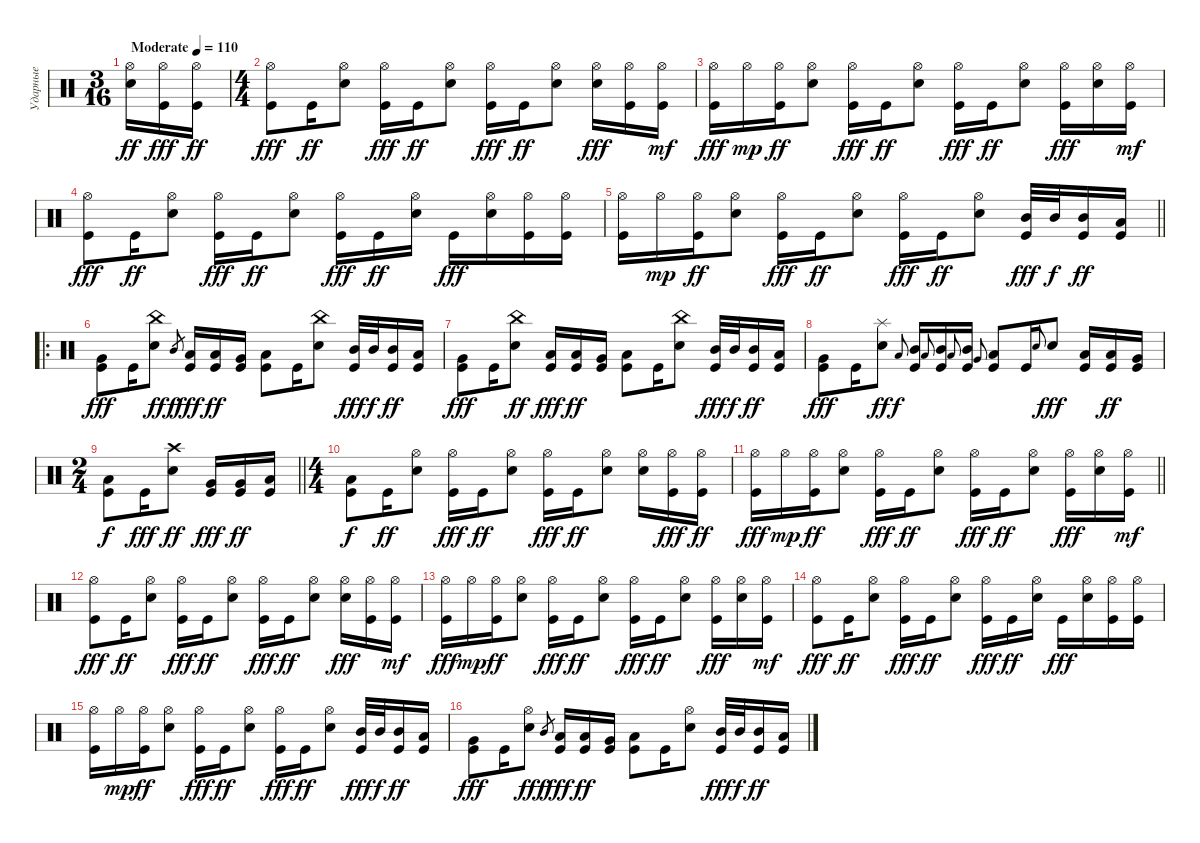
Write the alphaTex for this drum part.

\track ("Ударные" "Ударные") {instrument percussion}
\staff {score}
\articulation defaults
\ts (3 16)
\tempo (110 "Moderate")
\clef neutral
\ks c
("Hi-Hat (open)" "Electric Snare (hit)").16{dy ff} ("Hi-Hat (open)" "Kick (hit)").16{dy fff} ("Hi-Hat (open)" "Kick (hit)").16{dy ff} |
\ts (4 4)
("Hi-Hat (open)" "Kick (hit)").8{dy fff} "Kick (hit)".16{dy ff} ("Hi-Hat (open)" "Electric Snare (hit)").8 ("Hi-Hat (open)" "Kick (hit)").16{dy fff} "Kick (hit)".16{dy ff} ("Hi-Hat (open)" "Electric Snare (hit)").8 ("Hi-Hat (open)" "Kick (hit)").16{dy fff} "Kick (hit)".16{dy ff} ("Hi-Hat (open)" "Electric Snare (hit)").8 ("Hi-Hat (open)" "Electric Snare (hit)").16{dy fff} ("Hi-Hat (open)" "Kick (hit)").16 ("Hi-Hat (open)" "Kick (hit)").16{dy mf} |
("Hi-Hat (open)" "Kick (hit)").16{dy fff} "Hi-Hat (open)".16{dy mp} ("Hi-Hat (open)" "Kick (hit)").16{dy ff} ("Hi-Hat (open)" "Electric Snare (hit)").8 ("Hi-Hat (open)" "Kick (hit)").16{dy fff} "Kick (hit)".16{dy ff} ("Hi-Hat (open)" "Electric Snare (hit)").8 ("Hi-Hat (open)" "Kick (hit)").16{dy fff} "Kick (hit)".16{dy ff} ("Hi-Hat (open)" "Electric Snare (hit)").8 ("Hi-Hat (open)" "Kick (hit)").16{dy fff} ("Hi-Hat (open)" "Electric Snare (hit)").16 ("Hi-Hat (open)" "Kick (hit)").16{dy mf} |
("Hi-Hat (open)" "Kick (hit)").8{dy fff} "Kick (hit)".16{dy ff} ("Hi-Hat (open)" "Electric Snare (hit)").8 ("Hi-Hat (open)" "Kick (hit)").16{dy fff} "Kick (hit)".16{dy ff} ("Hi-Hat (open)" "Electric Snare (hit)").8 ("Hi-Hat (open)" "Kick (hit)").16{dy fff} "Kick (hit)".16{dy ff} ("Hi-Hat (open)" "Electric Snare (hit)").16 "Kick (hit)".16{dy fff} ("Hi-Hat (open)" "Electric Snare (hit)").16 ("Hi-Hat (open)" "Kick (hit)").16 ("Hi-Hat (open)" "Kick (hit)").16 |
\barLineRight lightlight
("Hi-Hat (open)" "Kick (hit)").16 "Hi-Hat (open)".16{dy mp} ("Hi-Hat (open)" "Kick (hit)").16{dy ff} ("Hi-Hat (open)" "Electric Snare (hit)").8 ("Hi-Hat (open)" "Kick (hit)").16{dy fff} "Kick (hit)".16{dy ff} ("Hi-Hat (open)" "Electric Snare (hit)").8 ("Hi-Hat (open)" "Kick (hit)").16{dy fff} "Kick (hit)".16{dy ff} ("Hi-Hat (open)" "Electric Snare (hit)").8 ("Mid Tom (hit)" "Kick (hit)").32{dy fff} "Mid Tom (hit)".32{dy f} ("Mid Tom (hit)" "Kick (hit)").16{dy ff} ("Low Tom (hit)" "Kick (hit)").16 |
\ro
("Very Low Tom (hit)" "Kick (hit)").8{dy fff} "Kick (hit)".16 ("China (hit)" "Electric Snare (hit)").8{dy ff} "Mid Tom (hit)".8{gr dy f} ("Low Tom (hit)" "Kick (hit)").16{dy fff} ("Low Tom (hit)" "Kick (hit)").16{dy ff} ("Very Low Tom (hit)" "Kick (hit)").16 ("Low Floor Tom (hit)" "Kick (hit)").8 "Kick (hit)".16 ("China (hit)" "Electric Snare (hit)").8 ("Mid Tom (hit)" "Kick (hit)").32{dy fff} "Mid Tom (hit)".32{dy f} ("Mid Tom (hit)" "Kick (hit)").16{dy ff} ("Low Tom (hit)" "Kick (hit)").16 |
("Very Low Tom (hit)" "Kick (hit)").8{dy fff} "Kick (hit)".16 ("China (hit)" "Electric Snare (hit)").8{dy ff} ("Low Tom (hit)" "Kick (hit)").16{dy fff} ("Low Tom (hit)" "Kick (hit)").16{dy ff} ("Very Low Tom (hit)" "Kick (hit)").16 ("Low Floor Tom (hit)" "Kick (hit)").8 "Kick (hit)".16 ("China (hit)" "Electric Snare (hit)").8 ("Mid Tom (hit)" "Kick (hit)").32{dy fff} "Mid Tom (hit)".32{dy f} ("Mid Tom (hit)" "Kick (hit)").16{dy ff} ("Low Tom (hit)" "Kick (hit)").16 |
("Very Low Tom (hit)" "Kick (hit)").8{dy fff} "Kick (hit)".16 ("Splash (hit)" "Electric Snare (hit)").8{dy ff} "Low Tom (hit)".8{gr onbeat dy f} ("Mid Tom (hit)" "Kick (hit)").16 "Low Tom (hit)".8{gr onbeat} ("Mid Tom (hit)" "Kick (hit)").16 "Low Tom (hit)".8{gr onbeat} ("Mid Tom (hit)" "Kick (hit)").16 "Very Low Tom (hit)".8{gr onbeat} ("Low Tom (hit)" "Kick (hit)").8 "Kick (hit)".16 "Electric Snare (hit)".8{gr onbeat} "Electric Snare (hit)".8{dy fff} ("Low Tom (hit)" "Kick (hit)").16 ("Low Tom (hit)" "Kick (hit)").16{dy ff} ("Very Low Tom (hit)" "Kick (hit)").16 |
\ts (2 4)
\barLineRight lightlight
("Low Floor Tom (hit)" "Kick (hit)").8{dy f} "Kick (hit)".16{dy fff} ("Crash high (hit)" "Electric Snare (hit)").8{dy ff} ("Very Low Tom (hit)" "Kick (hit)").16{dy fff} ("Very Low Tom (hit)" "Kick (hit)").16{dy ff} ("Low Floor Tom (hit)" "Kick (hit)").16 |
\ts (4 4)
\section ("" "")
("Low Floor Tom (hit)" "Kick (hit)").8{dy f} "Kick (hit)".16{dy ff} ("Hi-Hat (open)" "Electric Snare (hit)").8 ("Hi-Hat (open)" "Kick (hit)").16{dy fff} "Kick (hit)".16{dy ff} ("Hi-Hat (open)" "Electric Snare (hit)").8 ("Hi-Hat (open)" "Kick (hit)").16{dy fff} "Kick (hit)".16{dy ff} ("Hi-Hat (open)" "Electric Snare (hit)").8 ("Hi-Hat (open)" "Electric Snare (hit)").16 ("Hi-Hat (open)" "Kick (hit)").16{dy fff} ("Hi-Hat (open)" "Kick (hit)").16{dy ff} |
\barLineRight lightlight
("Hi-Hat (open)" "Kick (hit)").16{dy fff} "Hi-Hat (open)".16{dy mp} ("Hi-Hat (open)" "Kick (hit)").16{dy ff} ("Hi-Hat (open)" "Electric Snare (hit)").8 ("Hi-Hat (open)" "Kick (hit)").16{dy fff} "Kick (hit)".16{dy ff} ("Hi-Hat (open)" "Electric Snare (hit)").8 ("Hi-Hat (open)" "Kick (hit)").16{dy fff} "Kick (hit)".16{dy ff} ("Hi-Hat (open)" "Electric Snare (hit)").8 ("Hi-Hat (open)" "Kick (hit)").16{dy fff} ("Hi-Hat (open)" "Electric Snare (hit)").16 ("Hi-Hat (open)" "Kick (hit)").16{dy mf} |
\section ("" "")
("Hi-Hat (open)" "Kick (hit)").8{dy fff} "Kick (hit)".16{dy ff} ("Hi-Hat (open)" "Electric Snare (hit)").8 ("Hi-Hat (open)" "Kick (hit)").16{dy fff} "Kick (hit)".16{dy ff} ("Hi-Hat (open)" "Electric Snare (hit)").8 ("Hi-Hat (open)" "Kick (hit)").16{dy fff} "Kick (hit)".16{dy ff} ("Hi-Hat (open)" "Electric Snare (hit)").8 ("Hi-Hat (open)" "Electric Snare (hit)").16{dy fff} ("Hi-Hat (open)" "Kick (hit)").16 ("Hi-Hat (open)" "Kick (hit)").16{dy mf} |
("Hi-Hat (open)" "Kick (hit)").16{dy fff} "Hi-Hat (open)".16{dy mp} ("Hi-Hat (open)" "Kick (hit)").16{dy ff} ("Hi-Hat (open)" "Electric Snare (hit)").8 ("Hi-Hat (open)" "Kick (hit)").16{dy fff} "Kick (hit)".16{dy ff} ("Hi-Hat (open)" "Electric Snare (hit)").8 ("Hi-Hat (open)" "Kick (hit)").16{dy fff} "Kick (hit)".16{dy ff} ("Hi-Hat (open)" "Electric Snare (hit)").8 ("Hi-Hat (open)" "Kick (hit)").16{dy fff} ("Hi-Hat (open)" "Electric Snare (hit)").16 ("Hi-Hat (open)" "Kick (hit)").16{dy mf} |
("Hi-Hat (open)" "Kick (hit)").8{dy fff} "Kick (hit)".16{dy ff} ("Hi-Hat (open)" "Electric Snare (hit)").8 ("Hi-Hat (open)" "Kick (hit)").16{dy fff} "Kick (hit)".16{dy ff} ("Hi-Hat (open)" "Electric Snare (hit)").8 ("Hi-Hat (open)" "Kick (hit)").16{dy fff} "Kick (hit)".16{dy ff} ("Hi-Hat (open)" "Electric Snare (hit)").16 "Kick (hit)".16{dy fff} ("Hi-Hat (open)" "Electric Snare (hit)").16 ("Hi-Hat (open)" "Kick (hit)").16 ("Hi-Hat (open)" "Kick (hit)").16 |
("Hi-Hat (open)" "Kick (hit)").16 "Hi-Hat (open)".16{dy mp} ("Hi-Hat (open)" "Kick (hit)").16{dy ff} ("Hi-Hat (open)" "Electric Snare (hit)").8 ("Hi-Hat (open)" "Kick (hit)").16{dy fff} "Kick (hit)".16{dy ff} ("Hi-Hat (open)" "Electric Snare (hit)").8 ("Hi-Hat (open)" "Kick (hit)").16{dy fff} "Kick (hit)".16{dy ff} ("Hi-Hat (open)" "Electric Snare (hit)").8 ("Mid Tom (hit)" "Kick (hit)").32{dy fff} "Mid Tom (hit)".32{dy f} ("Mid Tom (hit)" "Kick (hit)").16{dy ff} ("Low Tom (hit)" "Kick (hit)").16 |
("Very Low Tom (hit)" "Kick (hit)").8{dy fff} "Kick (hit)".16 ("Hi-Hat (open)" "Electric Snare (hit)").8{dy ff} "Mid Tom (hit)".8{gr dy f} ("Low Tom (hit)" "Kick (hit)").16{dy fff} ("Low Tom (hit)" "Kick (hit)").16{dy ff} ("Very Low Tom (hit)" "Kick (hit)").16 ("Low Floor Tom (hit)" "Kick (hit)").8 "Kick (hit)".16 ("Hi-Hat (open)" "Electric Snare (hit)").8 ("Mid Tom (hit)" "Kick (hit)").32{dy fff} "Mid Tom (hit)".32{dy f} ("Mid Tom (hit)" "Kick (hit)").16{dy ff} ("Low Tom (hit)" "Kick (hit)").16
